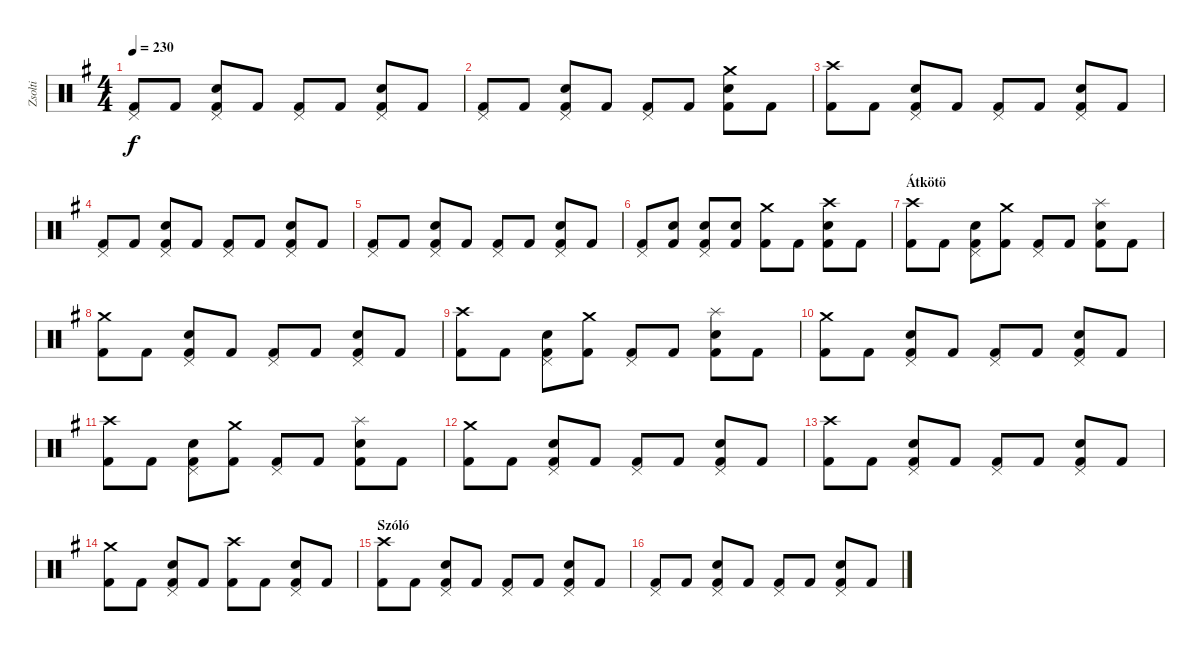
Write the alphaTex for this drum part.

\track ("Zsolti" "Zsolti") {instrument percussion}
\staff {score}
\articulation defaults
\ts (4 4)
\tempo 230
\clef neutral
\ks eminor
("Pedal Hi-Hat (hit)" "Kick (hit) 2").8{dy f} "Kick (hit) 2".8 ("Pedal Hi-Hat (hit)" "Snare (hit) 2" "Kick (hit) 2").8 "Kick (hit) 2".8 ("Pedal Hi-Hat (hit)" "Kick (hit) 2").8 "Kick (hit) 2".8 ("Pedal Hi-Hat (hit)" "Snare (hit) 2" "Kick (hit) 2").8 "Kick (hit) 2".8 |
("Pedal Hi-Hat (hit)" "Kick (hit) 2").8 "Kick (hit) 2".8 ("Pedal Hi-Hat (hit)" "Snare (hit) 2" "Kick (hit) 2").8 "Kick (hit) 2".8 ("Pedal Hi-Hat (hit)" "Kick (hit) 2").8 "Kick (hit) 2".8 ("Crash medium (hit)" "Snare (hit) 2" "Kick (hit) 2").8 "Kick (hit) 2".8 |
("Crash high (hit)" "Kick (hit) 2").8 "Kick (hit) 2".8 ("Pedal Hi-Hat (hit)" "Snare (hit) 2" "Kick (hit) 2").8 "Kick (hit) 2".8 ("Pedal Hi-Hat (hit)" "Kick (hit) 2").8 "Kick (hit) 2".8 ("Pedal Hi-Hat (hit)" "Snare (hit) 2" "Kick (hit) 2").8 "Kick (hit) 2".8 |
("Pedal Hi-Hat (hit)" "Kick (hit) 2").8 "Kick (hit) 2".8 ("Pedal Hi-Hat (hit)" "Snare (hit) 2" "Kick (hit) 2").8 "Kick (hit) 2".8 ("Pedal Hi-Hat (hit)" "Kick (hit) 2").8 "Kick (hit) 2".8 ("Pedal Hi-Hat (hit)" "Snare (hit) 2" "Kick (hit) 2").8 "Kick (hit) 2".8 |
("Pedal Hi-Hat (hit)" "Kick (hit) 2").8 "Kick (hit) 2".8 ("Pedal Hi-Hat (hit)" "Snare (hit) 2" "Kick (hit) 2").8 "Kick (hit) 2".8 ("Pedal Hi-Hat (hit)" "Kick (hit) 2").8 "Kick (hit) 2".8 ("Pedal Hi-Hat (hit)" "Snare (hit) 2" "Kick (hit) 2").8 "Kick (hit) 2".8 |
("Pedal Hi-Hat (hit)" "Kick (hit) 2").8 ("Snare (hit) 2" "Kick (hit) 2").8 ("Pedal Hi-Hat (hit)" "Snare (hit) 2" "Kick (hit) 2").8 ("Snare (hit) 2" "Kick (hit) 2").8 ("Crash medium (hit)" "Kick (hit) 2").8 "Kick (hit) 2".8 ("Crash high (hit)" "Snare (hit) 2" "Kick (hit) 2").8 "Kick (hit) 2".8 |
\section ("" "Átkötö")
("Crash high (hit)" "Kick (hit) 2").8 "Kick (hit) 2".8 ("Pedal Hi-Hat (hit)" "Snare (hit) 2" "Kick (hit) 2").8 ("Crash medium (hit)" "Kick (hit) 2").8 ("Pedal Hi-Hat (hit)" "Kick (hit) 2").8 "Kick (hit) 2".8 ("Splash (hit)" "Snare (hit) 2" "Kick (hit) 2").8 "Kick (hit) 2".8 |
("Crash medium (hit)" "Kick (hit) 2").8 "Kick (hit) 2".8 ("Pedal Hi-Hat (hit)" "Snare (hit) 2" "Kick (hit) 2").8 "Kick (hit) 2".8 ("Pedal Hi-Hat (hit)" "Kick (hit) 2").8 "Kick (hit) 2".8 ("Pedal Hi-Hat (hit)" "Snare (hit) 2" "Kick (hit) 2").8 "Kick (hit) 2".8 |
("Crash high (hit)" "Kick (hit) 2").8 "Kick (hit) 2".8 ("Pedal Hi-Hat (hit)" "Snare (hit) 2" "Kick (hit) 2").8 ("Crash medium (hit)" "Kick (hit) 2").8 ("Pedal Hi-Hat (hit)" "Kick (hit) 2").8 "Kick (hit) 2".8 ("Splash (hit)" "Snare (hit) 2" "Kick (hit) 2").8 "Kick (hit) 2".8 |
("Crash medium (hit)" "Kick (hit) 2").8 "Kick (hit) 2".8 ("Pedal Hi-Hat (hit)" "Snare (hit) 2" "Kick (hit) 2").8 "Kick (hit) 2".8 ("Pedal Hi-Hat (hit)" "Kick (hit) 2").8 "Kick (hit) 2".8 ("Pedal Hi-Hat (hit)" "Snare (hit) 2" "Kick (hit) 2").8 "Kick (hit) 2".8 |
("Crash high (hit)" "Kick (hit) 2").8 "Kick (hit) 2".8 ("Pedal Hi-Hat (hit)" "Snare (hit) 2" "Kick (hit) 2").8 ("Crash medium (hit)" "Kick (hit) 2").8 ("Pedal Hi-Hat (hit)" "Kick (hit) 2").8 "Kick (hit) 2".8 ("Splash (hit)" "Snare (hit) 2" "Kick (hit) 2").8 "Kick (hit) 2".8 |
("Crash medium (hit)" "Kick (hit) 2").8 "Kick (hit) 2".8 ("Pedal Hi-Hat (hit)" "Snare (hit) 2" "Kick (hit) 2").8 "Kick (hit) 2".8 ("Pedal Hi-Hat (hit)" "Kick (hit) 2").8 "Kick (hit) 2".8 ("Pedal Hi-Hat (hit)" "Snare (hit) 2" "Kick (hit) 2").8 "Kick (hit) 2".8 |
("Crash high (hit)" "Kick (hit) 2").8 "Kick (hit) 2".8 ("Pedal Hi-Hat (hit)" "Snare (hit) 2" "Kick (hit) 2").8 "Kick (hit) 2".8 ("Pedal Hi-Hat (hit)" "Kick (hit) 2").8 "Kick (hit) 2".8 ("Pedal Hi-Hat (hit)" "Snare (hit) 2" "Kick (hit) 2").8 "Kick (hit) 2".8 |
("Crash medium (hit)" "Kick (hit) 2").8 "Kick (hit) 2".8 ("Pedal Hi-Hat (hit)" "Snare (hit) 2" "Kick (hit) 2").8 "Kick (hit) 2".8 ("Crash high (hit)" "Kick (hit) 2").8 "Kick (hit) 2".8 ("Pedal Hi-Hat (hit)" "Snare (hit) 2" "Kick (hit) 2").8 "Kick (hit) 2".8 |
\section ("" "Szóló")
("Crash high (hit)" "Kick (hit) 2").8 "Kick (hit) 2".8 ("Pedal Hi-Hat (hit)" "Snare (hit) 2" "Kick (hit) 2").8 "Kick (hit) 2".8 ("Pedal Hi-Hat (hit)" "Kick (hit) 2").8 "Kick (hit) 2".8 ("Pedal Hi-Hat (hit)" "Snare (hit) 2" "Kick (hit) 2").8 "Kick (hit) 2".8 |
("Pedal Hi-Hat (hit)" "Kick (hit) 2").8 "Kick (hit) 2".8 ("Pedal Hi-Hat (hit)" "Snare (hit) 2" "Kick (hit) 2").8 "Kick (hit) 2".8 ("Pedal Hi-Hat (hit)" "Kick (hit) 2").8 "Kick (hit) 2".8 ("Pedal Hi-Hat (hit)" "Snare (hit) 2" "Kick (hit) 2").8 "Kick (hit) 2".8
